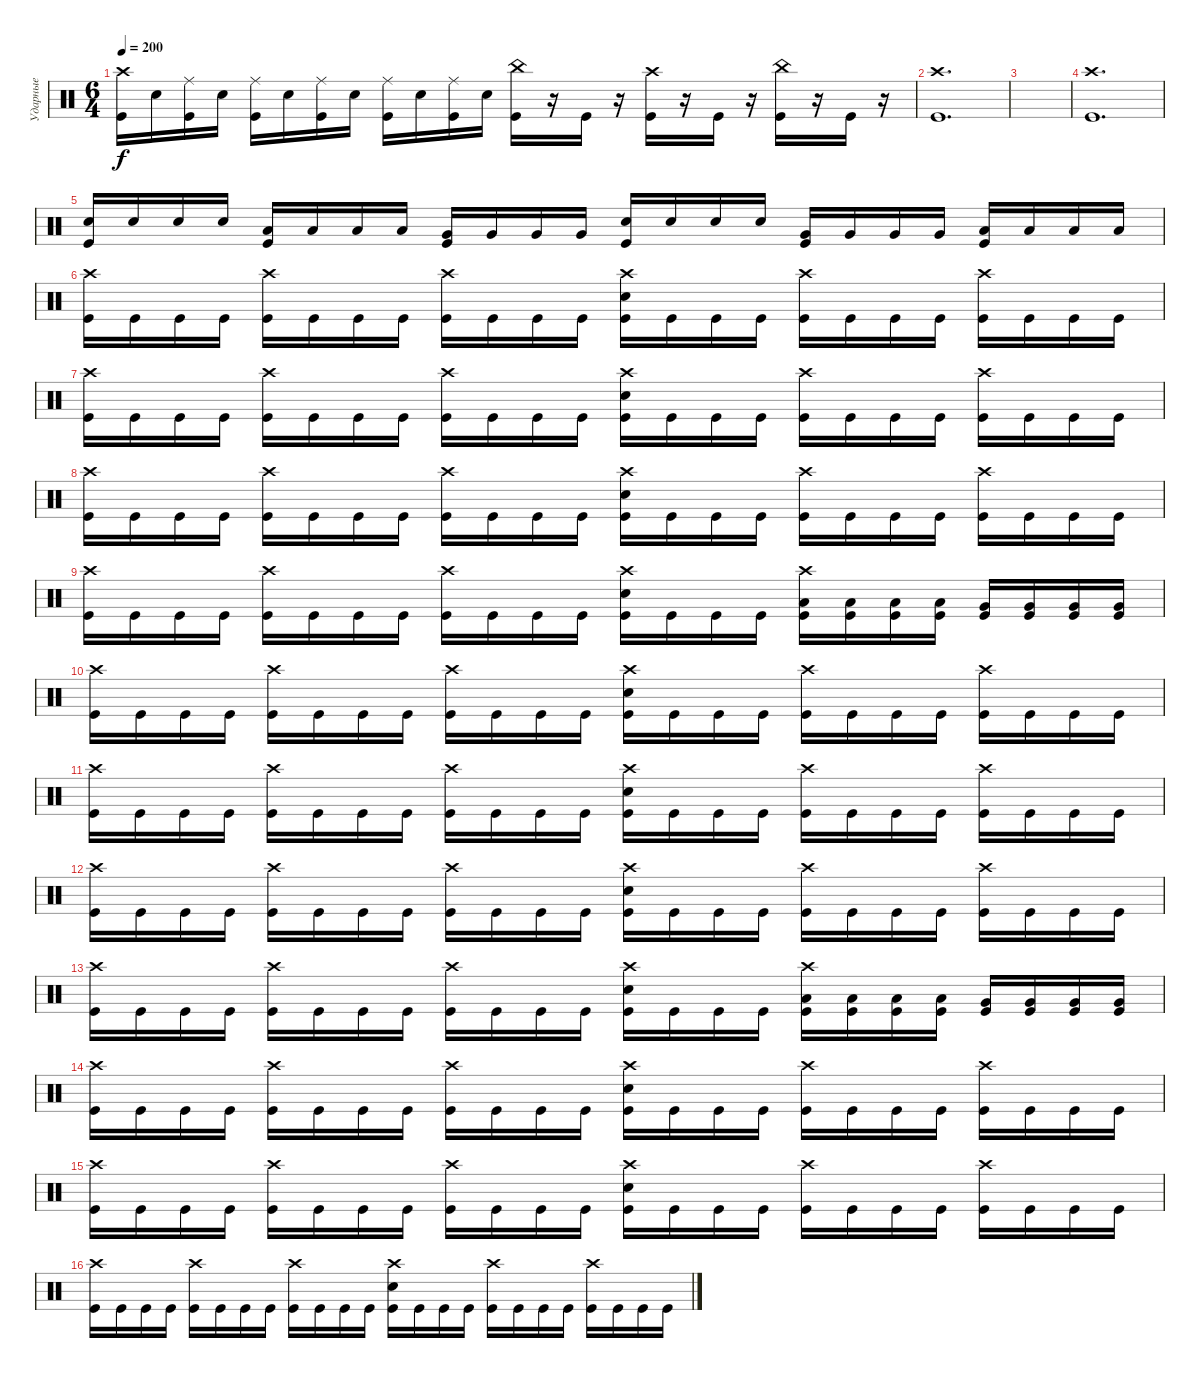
\track ("Ударные" "Ударные") {instrument percussion}
\staff {score}
\articulation defaults
\ts (6 4)
\tempo 200
\clef neutral
\ks c
("Crash high (hit)" "Kick (hit)").16{dy f} "Snare (hit) 2".16 ("Ride (middle)" "Kick (hit)").16 "Snare (hit) 2".16 ("Ride (middle)" "Kick (hit)").16 "Snare (hit) 2".16 ("Ride (middle)" "Kick (hit)").16 "Snare (hit) 2".16 ("Ride (middle)" "Kick (hit)").16 "Snare (hit) 2".16 ("Ride (middle)" "Kick (hit)").16 "Snare (hit) 2".16 ("China (hit)" "Kick (hit)").16 r.16 "Kick (hit)".16 r.16 ("Crash high (hit)" "Kick (hit)").16 r.16 "Kick (hit)".16 r.16 ("China (hit)" "Kick (hit)").16 r.16 "Kick (hit)".16 r.16 |
("Crash high (hit)" "Kick (hit)").1{d} |
|
("Crash high (hit)" "Kick (hit)").1{d} |
("Snare (hit) 2" "Kick (hit)").16 "Snare (hit) 2".16 "Snare (hit) 2".16 "Snare (hit) 2".16 ("Low Tom (hit)" "Kick (hit)").16 "Low Tom (hit)".16 "Low Tom (hit)".16 "Low Tom (hit)".16 ("Very Low Tom (hit)" "Kick (hit)").16 "Very Low Tom (hit)".16 "Very Low Tom (hit)".16 "Very Low Tom (hit)".16 ("Snare (hit) 2" "Kick (hit)").16 "Snare (hit) 2".16 "Snare (hit) 2".16 "Snare (hit) 2".16 ("Very Low Tom (hit)" "Kick (hit)").16 "Very Low Tom (hit)".16 "Very Low Tom (hit)".16 "Very Low Tom (hit)".16 ("Low Floor Tom (hit)" "Kick (hit)").16 "Low Floor Tom (hit)".16 "Low Floor Tom (hit)".16 "Low Floor Tom (hit)".16 |
("Crash high (hit)" "Kick (hit)").16 "Kick (hit)".16 "Kick (hit)".16 "Kick (hit)".16 ("Crash high (hit)" "Kick (hit)").16 "Kick (hit)".16 "Kick (hit)".16 "Kick (hit)".16 ("Crash high (hit)" "Kick (hit)").16 "Kick (hit)".16 "Kick (hit)".16 "Kick (hit)".16 ("Crash high (hit)" "Snare (hit) 2" "Kick (hit)").16 "Kick (hit)".16 "Kick (hit)".16 "Kick (hit)".16 ("Crash high (hit)" "Kick (hit)").16 "Kick (hit)".16 "Kick (hit)".16 "Kick (hit)".16 ("Crash high (hit)" "Kick (hit)").16 "Kick (hit)".16 "Kick (hit)".16 "Kick (hit)".16 |
("Crash high (hit)" "Kick (hit)").16 "Kick (hit)".16 "Kick (hit)".16 "Kick (hit)".16 ("Crash high (hit)" "Kick (hit)").16 "Kick (hit)".16 "Kick (hit)".16 "Kick (hit)".16 ("Crash high (hit)" "Kick (hit)").16 "Kick (hit)".16 "Kick (hit)".16 "Kick (hit)".16 ("Crash high (hit)" "Snare (hit) 2" "Kick (hit)").16 "Kick (hit)".16 "Kick (hit)".16 "Kick (hit)".16 ("Crash high (hit)" "Kick (hit)").16 "Kick (hit)".16 "Kick (hit)".16 "Kick (hit)".16 ("Crash high (hit)" "Kick (hit)").16 "Kick (hit)".16 "Kick (hit)".16 "Kick (hit)".16 |
("Crash high (hit)" "Kick (hit)").16 "Kick (hit)".16 "Kick (hit)".16 "Kick (hit)".16 ("Crash high (hit)" "Kick (hit)").16 "Kick (hit)".16 "Kick (hit)".16 "Kick (hit)".16 ("Crash high (hit)" "Kick (hit)").16 "Kick (hit)".16 "Kick (hit)".16 "Kick (hit)".16 ("Crash high (hit)" "Snare (hit) 2" "Kick (hit)").16 "Kick (hit)".16 "Kick (hit)".16 "Kick (hit)".16 ("Crash high (hit)" "Kick (hit)").16 "Kick (hit)".16 "Kick (hit)".16 "Kick (hit)".16 ("Crash high (hit)" "Kick (hit)").16 "Kick (hit)".16 "Kick (hit)".16 "Kick (hit)".16 |
("Crash high (hit)" "Kick (hit)").16 "Kick (hit)".16 "Kick (hit)".16 "Kick (hit)".16 ("Crash high (hit)" "Kick (hit)").16 "Kick (hit)".16 "Kick (hit)".16 "Kick (hit)".16 ("Crash high (hit)" "Kick (hit)").16 "Kick (hit)".16 "Kick (hit)".16 "Kick (hit)".16 ("Crash high (hit)" "Snare (hit) 2" "Kick (hit)").16 "Kick (hit)".16 "Kick (hit)".16 "Kick (hit)".16 ("Crash high (hit)" "Low Tom (hit)" "Kick (hit)").16 ("Low Tom (hit)" "Kick (hit)").16 ("Low Tom (hit)" "Kick (hit)").16 ("Low Tom (hit)" "Kick (hit)").16 ("Very Low Tom (hit)" "Kick (hit)").16 ("Very Low Tom (hit)" "Kick (hit)").16 ("Very Low Tom (hit)" "Kick (hit)").16 ("Very Low Tom (hit)" "Kick (hit)").16 |
("Crash high (hit)" "Kick (hit)").16 "Kick (hit)".16 "Kick (hit)".16 "Kick (hit)".16 ("Crash high (hit)" "Kick (hit)").16 "Kick (hit)".16 "Kick (hit)".16 "Kick (hit)".16 ("Crash high (hit)" "Kick (hit)").16 "Kick (hit)".16 "Kick (hit)".16 "Kick (hit)".16 ("Crash high (hit)" "Snare (hit) 2" "Kick (hit)").16 "Kick (hit)".16 "Kick (hit)".16 "Kick (hit)".16 ("Crash high (hit)" "Kick (hit)").16 "Kick (hit)".16 "Kick (hit)".16 "Kick (hit)".16 ("Crash high (hit)" "Kick (hit)").16 "Kick (hit)".16 "Kick (hit)".16 "Kick (hit)".16 |
("Crash high (hit)" "Kick (hit)").16 "Kick (hit)".16 "Kick (hit)".16 "Kick (hit)".16 ("Crash high (hit)" "Kick (hit)").16 "Kick (hit)".16 "Kick (hit)".16 "Kick (hit)".16 ("Crash high (hit)" "Kick (hit)").16 "Kick (hit)".16 "Kick (hit)".16 "Kick (hit)".16 ("Crash high (hit)" "Snare (hit) 2" "Kick (hit)").16 "Kick (hit)".16 "Kick (hit)".16 "Kick (hit)".16 ("Crash high (hit)" "Kick (hit)").16 "Kick (hit)".16 "Kick (hit)".16 "Kick (hit)".16 ("Crash high (hit)" "Kick (hit)").16 "Kick (hit)".16 "Kick (hit)".16 "Kick (hit)".16 |
("Crash high (hit)" "Kick (hit)").16 "Kick (hit)".16 "Kick (hit)".16 "Kick (hit)".16 ("Crash high (hit)" "Kick (hit)").16 "Kick (hit)".16 "Kick (hit)".16 "Kick (hit)".16 ("Crash high (hit)" "Kick (hit)").16 "Kick (hit)".16 "Kick (hit)".16 "Kick (hit)".16 ("Crash high (hit)" "Snare (hit) 2" "Kick (hit)").16 "Kick (hit)".16 "Kick (hit)".16 "Kick (hit)".16 ("Crash high (hit)" "Kick (hit)").16 "Kick (hit)".16 "Kick (hit)".16 "Kick (hit)".16 ("Crash high (hit)" "Kick (hit)").16 "Kick (hit)".16 "Kick (hit)".16 "Kick (hit)".16 |
("Crash high (hit)" "Kick (hit)").16 "Kick (hit)".16 "Kick (hit)".16 "Kick (hit)".16 ("Crash high (hit)" "Kick (hit)").16 "Kick (hit)".16 "Kick (hit)".16 "Kick (hit)".16 ("Crash high (hit)" "Kick (hit)").16 "Kick (hit)".16 "Kick (hit)".16 "Kick (hit)".16 ("Crash high (hit)" "Snare (hit) 2" "Kick (hit)").16 "Kick (hit)".16 "Kick (hit)".16 "Kick (hit)".16 ("Crash high (hit)" "Low Tom (hit)" "Kick (hit)").16 ("Low Tom (hit)" "Kick (hit)").16 ("Low Tom (hit)" "Kick (hit)").16 ("Low Tom (hit)" "Kick (hit)").16 ("Very Low Tom (hit)" "Kick (hit)").16 ("Very Low Tom (hit)" "Kick (hit)").16 ("Very Low Tom (hit)" "Kick (hit)").16 ("Very Low Tom (hit)" "Kick (hit)").16 |
("Crash high (hit)" "Kick (hit)").16 "Kick (hit)".16 "Kick (hit)".16 "Kick (hit)".16 ("Crash high (hit)" "Kick (hit)").16 "Kick (hit)".16 "Kick (hit)".16 "Kick (hit)".16 ("Crash high (hit)" "Kick (hit)").16 "Kick (hit)".16 "Kick (hit)".16 "Kick (hit)".16 ("Crash high (hit)" "Snare (hit) 2" "Kick (hit)").16 "Kick (hit)".16 "Kick (hit)".16 "Kick (hit)".16 ("Crash high (hit)" "Kick (hit)").16 "Kick (hit)".16 "Kick (hit)".16 "Kick (hit)".16 ("Crash high (hit)" "Kick (hit)").16 "Kick (hit)".16 "Kick (hit)".16 "Kick (hit)".16 |
("Crash high (hit)" "Kick (hit)").16 "Kick (hit)".16 "Kick (hit)".16 "Kick (hit)".16 ("Crash high (hit)" "Kick (hit)").16 "Kick (hit)".16 "Kick (hit)".16 "Kick (hit)".16 ("Crash high (hit)" "Kick (hit)").16 "Kick (hit)".16 "Kick (hit)".16 "Kick (hit)".16 ("Crash high (hit)" "Snare (hit) 2" "Kick (hit)").16 "Kick (hit)".16 "Kick (hit)".16 "Kick (hit)".16 ("Crash high (hit)" "Kick (hit)").16 "Kick (hit)".16 "Kick (hit)".16 "Kick (hit)".16 ("Crash high (hit)" "Kick (hit)").16 "Kick (hit)".16 "Kick (hit)".16 "Kick (hit)".16 |
("Crash high (hit)" "Kick (hit)").16 "Kick (hit)".16 "Kick (hit)".16 "Kick (hit)".16 ("Crash high (hit)" "Kick (hit)").16 "Kick (hit)".16 "Kick (hit)".16 "Kick (hit)".16 ("Crash high (hit)" "Kick (hit)").16 "Kick (hit)".16 "Kick (hit)".16 "Kick (hit)".16 ("Crash high (hit)" "Snare (hit) 2" "Kick (hit)").16 "Kick (hit)".16 "Kick (hit)".16 "Kick (hit)".16 ("Crash high (hit)" "Kick (hit)").16 "Kick (hit)".16 "Kick (hit)".16 "Kick (hit)".16 ("Crash high (hit)" "Kick (hit)").16 "Kick (hit)".16 "Kick (hit)".16 "Kick (hit)".16
